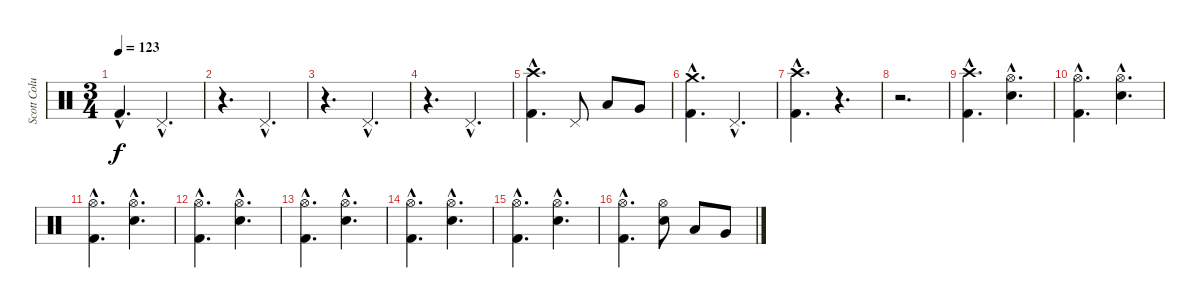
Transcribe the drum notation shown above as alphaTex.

\track ("Scott Columbus" "Scott Colu") {instrument percussion}
\staff {score}
\articulation defaults
\ts (3 4)
\tempo 123
\clef neutral
\ks c "Kick (hit) 2"{hac}.4{d dy f} "Pedal Hi-Hat (hit)"{hac}.4{d}
|
r.4{d} "Pedal Hi-Hat (hit)"{hac}.4{d} |
r.4{d} "Pedal Hi-Hat (hit)"{hac}.4{d} |
r.4{d} "Pedal Hi-Hat (hit)"{hac}.4{d} |
("Crash high (hit)"{hac} "Kick (hit) 2"{hac}).4{d} "Pedal Hi-Hat (hit)".8 "Low Tom (hit)".8 "Very Low Tom (hit)".8 |
("Crash medium (hit)"{hac} "Kick (hit) 2"{hac}).4{d} "Pedal Hi-Hat (hit)"{hac}.4{d} |
("Crash high (hit)"{hac} "Kick (hit) 2"{hac}).4{d} r.4{d} |
r.2{d} |
("Crash high (hit)"{hac} "Kick (hit) 2"{hac}).4{d} ("Hi-Hat (open)"{hac} "Snare (hit) 2"{hac}).4{d} |
("Hi-Hat (open)"{hac} "Kick (hit) 2"{hac}).4{d} ("Hi-Hat (open)"{hac} "Snare (hit) 2"{hac}).4{d} |
("Hi-Hat (open)"{hac} "Kick (hit) 2"{hac}).4{d} ("Hi-Hat (open)"{hac} "Snare (hit) 2"{hac}).4{d} |
("Hi-Hat (open)"{hac} "Kick (hit) 2"{hac}).4{d} ("Hi-Hat (open)"{hac} "Snare (hit) 2"{hac}).4{d} |
("Hi-Hat (open)"{hac} "Kick (hit) 2"{hac}).4{d} ("Hi-Hat (open)"{hac} "Snare (hit) 2"{hac}).4{d} |
("Hi-Hat (open)"{hac} "Kick (hit) 2"{hac}).4{d} ("Hi-Hat (open)"{hac} "Snare (hit) 2"{hac}).4{d} |
("Hi-Hat (open)"{hac} "Kick (hit) 2"{hac}).4{d} ("Hi-Hat (open)"{hac} "Snare (hit) 2"{hac}).4{d} |
("Hi-Hat (open)"{hac} "Kick (hit) 2"{hac}).4{d} ("Hi-Hat (open)" "Snare (hit) 2").8 "Low Tom (hit)".8 "Very Low Tom (hit)".8
